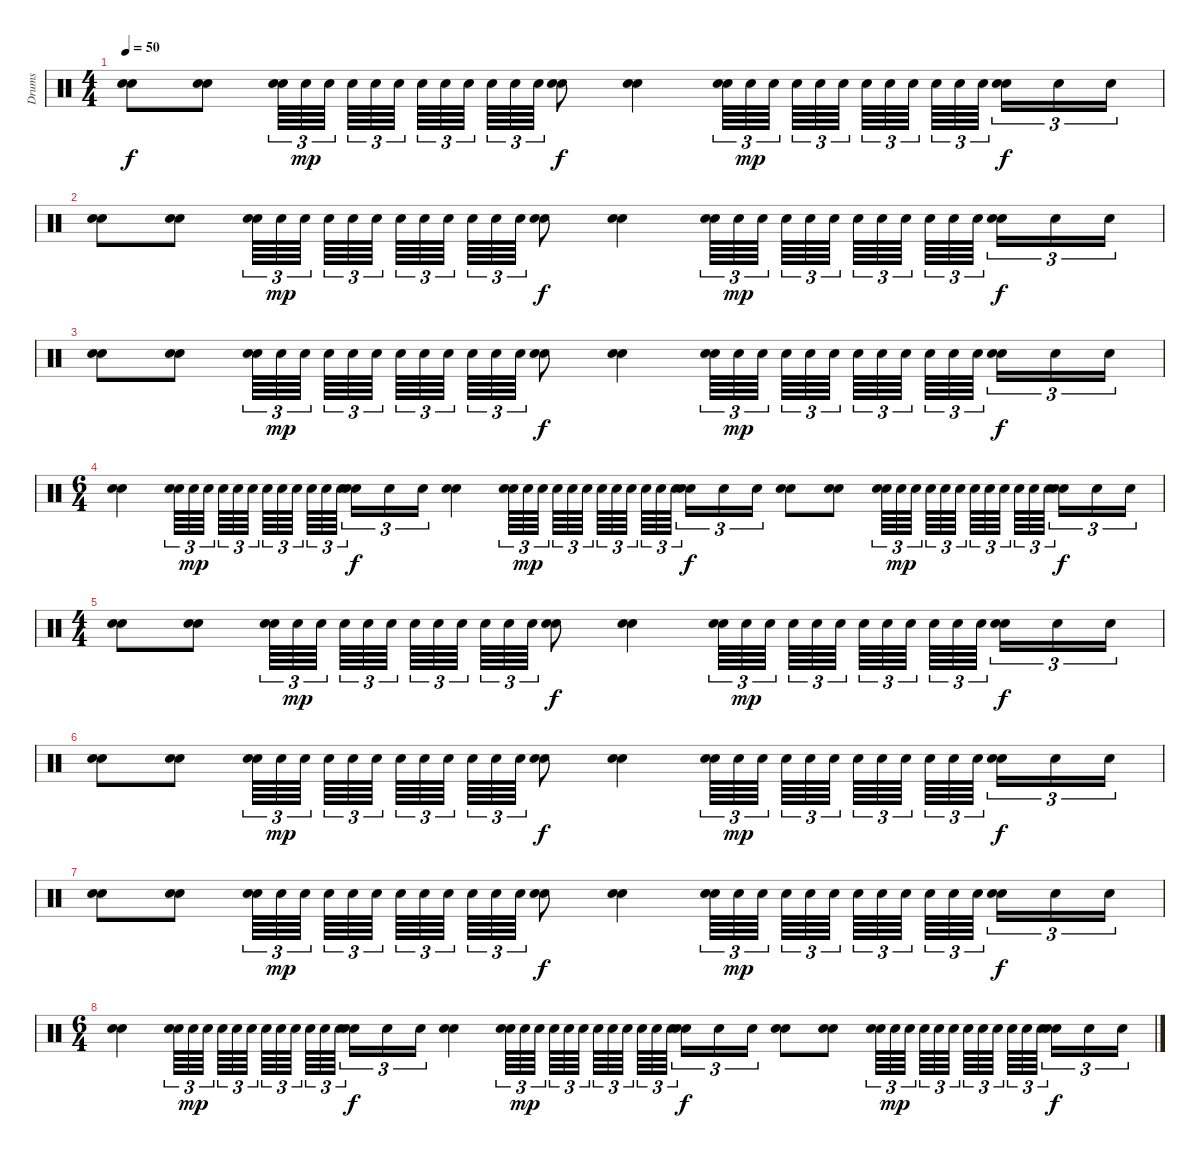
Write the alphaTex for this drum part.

\track ("Drums" "Drums") {instrument percussion}
\staff {score}
\articulation defaults
\ts (4 4)
\tempo 50
\clef neutral
\ks c
("Electric Snare (hit)" "Electric Snare (hit)").8{bu 60 dy f} ("Electric Snare (hit)" "Electric Snare (hit)").8{bu 60} ("Electric Snare (hit)" "Electric Snare (hit)").64{tu (3 2) bu 60} "Electric Snare (hit)".64{tu (3 2) dy mp} "Electric Snare (hit)".64{tu (3 2)} "Electric Snare (hit)".64{tu (3 2)} "Electric Snare (hit)".64{tu (3 2)} "Electric Snare (hit)".64{tu (3 2)} "Electric Snare (hit)".64{tu (3 2)} "Electric Snare (hit)".64{tu (3 2)} "Electric Snare (hit)".64{tu (3 2)} "Electric Snare (hit)".64{tu (3 2)} "Electric Snare (hit)".64{tu (3 2)} "Electric Snare (hit)".64{tu (3 2)} ("Electric Snare (hit)" "Electric Snare (hit)").8{bu 60 dy f} ("Electric Snare (hit)" "Electric Snare (hit)").4{bu 60} ("Electric Snare (hit)" "Electric Snare (hit)").64{tu (3 2) bu 60} "Electric Snare (hit)".64{tu (3 2) dy mp} "Electric Snare (hit)".64{tu (3 2)} "Electric Snare (hit)".64{tu (3 2)} "Electric Snare (hit)".64{tu (3 2)} "Electric Snare (hit)".64{tu (3 2)} "Electric Snare (hit)".64{tu (3 2)} "Electric Snare (hit)".64{tu (3 2)} "Electric Snare (hit)".64{tu (3 2)} "Electric Snare (hit)".64{tu (3 2)} "Electric Snare (hit)".64{tu (3 2)} "Electric Snare (hit)".64{tu (3 2)} ("Electric Snare (hit)" "Electric Snare (hit)").16{tu (3 2) bu 60 dy f} "Electric Snare (hit)".16{tu (3 2)} "Electric Snare (hit)".16{tu (3 2)} |
("Electric Snare (hit)" "Electric Snare (hit)").8{bu 60} ("Electric Snare (hit)" "Electric Snare (hit)").8{bu 60} ("Electric Snare (hit)" "Electric Snare (hit)").64{tu (3 2) bu 60} "Electric Snare (hit)".64{tu (3 2) dy mp} "Electric Snare (hit)".64{tu (3 2)} "Electric Snare (hit)".64{tu (3 2)} "Electric Snare (hit)".64{tu (3 2)} "Electric Snare (hit)".64{tu (3 2)} "Electric Snare (hit)".64{tu (3 2)} "Electric Snare (hit)".64{tu (3 2)} "Electric Snare (hit)".64{tu (3 2)} "Electric Snare (hit)".64{tu (3 2)} "Electric Snare (hit)".64{tu (3 2)} "Electric Snare (hit)".64{tu (3 2)} ("Electric Snare (hit)" "Electric Snare (hit)").8{bu 60 dy f} ("Electric Snare (hit)" "Electric Snare (hit)").4{bu 60} ("Electric Snare (hit)" "Electric Snare (hit)").64{tu (3 2) bu 60} "Electric Snare (hit)".64{tu (3 2) dy mp} "Electric Snare (hit)".64{tu (3 2)} "Electric Snare (hit)".64{tu (3 2)} "Electric Snare (hit)".64{tu (3 2)} "Electric Snare (hit)".64{tu (3 2)} "Electric Snare (hit)".64{tu (3 2)} "Electric Snare (hit)".64{tu (3 2)} "Electric Snare (hit)".64{tu (3 2)} "Electric Snare (hit)".64{tu (3 2)} "Electric Snare (hit)".64{tu (3 2)} "Electric Snare (hit)".64{tu (3 2)} ("Electric Snare (hit)" "Electric Snare (hit)").16{tu (3 2) bu 60 dy f} "Electric Snare (hit)".16{tu (3 2)} "Electric Snare (hit)".16{tu (3 2)} |
("Electric Snare (hit)" "Electric Snare (hit)").8{bu 60} ("Electric Snare (hit)" "Electric Snare (hit)").8{bu 60} ("Electric Snare (hit)" "Electric Snare (hit)").64{tu (3 2) bu 60} "Electric Snare (hit)".64{tu (3 2) dy mp} "Electric Snare (hit)".64{tu (3 2)} "Electric Snare (hit)".64{tu (3 2)} "Electric Snare (hit)".64{tu (3 2)} "Electric Snare (hit)".64{tu (3 2)} "Electric Snare (hit)".64{tu (3 2)} "Electric Snare (hit)".64{tu (3 2)} "Electric Snare (hit)".64{tu (3 2)} "Electric Snare (hit)".64{tu (3 2)} "Electric Snare (hit)".64{tu (3 2)} "Electric Snare (hit)".64{tu (3 2)} ("Electric Snare (hit)" "Electric Snare (hit)").8{bu 60 dy f} ("Electric Snare (hit)" "Electric Snare (hit)").4{bu 60} ("Electric Snare (hit)" "Electric Snare (hit)").64{tu (3 2) bu 60} "Electric Snare (hit)".64{tu (3 2) dy mp} "Electric Snare (hit)".64{tu (3 2)} "Electric Snare (hit)".64{tu (3 2)} "Electric Snare (hit)".64{tu (3 2)} "Electric Snare (hit)".64{tu (3 2)} "Electric Snare (hit)".64{tu (3 2)} "Electric Snare (hit)".64{tu (3 2)} "Electric Snare (hit)".64{tu (3 2)} "Electric Snare (hit)".64{tu (3 2)} "Electric Snare (hit)".64{tu (3 2)} "Electric Snare (hit)".64{tu (3 2)} ("Electric Snare (hit)" "Electric Snare (hit)").16{tu (3 2) bu 60 dy f} "Electric Snare (hit)".16{tu (3 2)} "Electric Snare (hit)".16{tu (3 2)} |
\ts (6 4)
("Electric Snare (hit)" "Electric Snare (hit)").4{bu 60} ("Electric Snare (hit)" "Electric Snare (hit)").64{tu (3 2) bu 60} "Electric Snare (hit)".64{tu (3 2) dy mp} "Electric Snare (hit)".64{tu (3 2)} "Electric Snare (hit)".64{tu (3 2)} "Electric Snare (hit)".64{tu (3 2)} "Electric Snare (hit)".64{tu (3 2)} "Electric Snare (hit)".64{tu (3 2)} "Electric Snare (hit)".64{tu (3 2)} "Electric Snare (hit)".64{tu (3 2)} "Electric Snare (hit)".64{tu (3 2)} "Electric Snare (hit)".64{tu (3 2)} "Electric Snare (hit)".64{tu (3 2)} ("Electric Snare (hit)" "Electric Snare (hit)").16{tu (3 2) bu 60 dy f} "Electric Snare (hit)".16{tu (3 2)} "Electric Snare (hit)".16{tu (3 2)} ("Electric Snare (hit)" "Electric Snare (hit)").4{bu 60} ("Electric Snare (hit)" "Electric Snare (hit)").64{tu (3 2) bu 60} "Electric Snare (hit)".64{tu (3 2) dy mp} "Electric Snare (hit)".64{tu (3 2)} "Electric Snare (hit)".64{tu (3 2)} "Electric Snare (hit)".64{tu (3 2)} "Electric Snare (hit)".64{tu (3 2)} "Electric Snare (hit)".64{tu (3 2)} "Electric Snare (hit)".64{tu (3 2)} "Electric Snare (hit)".64{tu (3 2)} "Electric Snare (hit)".64{tu (3 2)} "Electric Snare (hit)".64{tu (3 2)} "Electric Snare (hit)".64{tu (3 2)} ("Electric Snare (hit)" "Electric Snare (hit)").16{tu (3 2) bu 60 dy f} "Electric Snare (hit)".16{tu (3 2)} "Electric Snare (hit)".16{tu (3 2)} ("Electric Snare (hit)" "Electric Snare (hit)").8{bu 60} ("Electric Snare (hit)" "Electric Snare (hit)").8{bu 60} ("Electric Snare (hit)" "Electric Snare (hit)").64{tu (3 2) bu 60} "Electric Snare (hit)".64{tu (3 2) dy mp} "Electric Snare (hit)".64{tu (3 2)} "Electric Snare (hit)".64{tu (3 2)} "Electric Snare (hit)".64{tu (3 2)} "Electric Snare (hit)".64{tu (3 2)} "Electric Snare (hit)".64{tu (3 2)} "Electric Snare (hit)".64{tu (3 2)} "Electric Snare (hit)".64{tu (3 2)} "Electric Snare (hit)".64{tu (3 2)} "Electric Snare (hit)".64{tu (3 2)} "Electric Snare (hit)".64{tu (3 2)} ("Electric Snare (hit)" "Electric Snare (hit)").16{tu (3 2) bu 60 dy f} "Electric Snare (hit)".16{tu (3 2)} "Electric Snare (hit)".16{tu (3 2)} |
\ts (4 4)
("Electric Snare (hit)" "Electric Snare (hit)").8{bu 60} ("Electric Snare (hit)" "Electric Snare (hit)").8{bu 60} ("Electric Snare (hit)" "Electric Snare (hit)").64{tu (3 2) bu 60} "Electric Snare (hit)".64{tu (3 2) dy mp} "Electric Snare (hit)".64{tu (3 2)} "Electric Snare (hit)".64{tu (3 2)} "Electric Snare (hit)".64{tu (3 2)} "Electric Snare (hit)".64{tu (3 2)} "Electric Snare (hit)".64{tu (3 2)} "Electric Snare (hit)".64{tu (3 2)} "Electric Snare (hit)".64{tu (3 2)} "Electric Snare (hit)".64{tu (3 2)} "Electric Snare (hit)".64{tu (3 2)} "Electric Snare (hit)".64{tu (3 2)} ("Electric Snare (hit)" "Electric Snare (hit)").8{bu 60 dy f} ("Electric Snare (hit)" "Electric Snare (hit)").4{bu 60} ("Electric Snare (hit)" "Electric Snare (hit)").64{tu (3 2) bu 60} "Electric Snare (hit)".64{tu (3 2) dy mp} "Electric Snare (hit)".64{tu (3 2)} "Electric Snare (hit)".64{tu (3 2)} "Electric Snare (hit)".64{tu (3 2)} "Electric Snare (hit)".64{tu (3 2)} "Electric Snare (hit)".64{tu (3 2)} "Electric Snare (hit)".64{tu (3 2)} "Electric Snare (hit)".64{tu (3 2)} "Electric Snare (hit)".64{tu (3 2)} "Electric Snare (hit)".64{tu (3 2)} "Electric Snare (hit)".64{tu (3 2)} ("Electric Snare (hit)" "Electric Snare (hit)").16{tu (3 2) bu 60 dy f} "Electric Snare (hit)".16{tu (3 2)} "Electric Snare (hit)".16{tu (3 2)} |
("Electric Snare (hit)" "Electric Snare (hit)").8{bu 60} ("Electric Snare (hit)" "Electric Snare (hit)").8{bu 60} ("Electric Snare (hit)" "Electric Snare (hit)").64{tu (3 2) bu 60} "Electric Snare (hit)".64{tu (3 2) dy mp} "Electric Snare (hit)".64{tu (3 2)} "Electric Snare (hit)".64{tu (3 2)} "Electric Snare (hit)".64{tu (3 2)} "Electric Snare (hit)".64{tu (3 2)} "Electric Snare (hit)".64{tu (3 2)} "Electric Snare (hit)".64{tu (3 2)} "Electric Snare (hit)".64{tu (3 2)} "Electric Snare (hit)".64{tu (3 2)} "Electric Snare (hit)".64{tu (3 2)} "Electric Snare (hit)".64{tu (3 2)} ("Electric Snare (hit)" "Electric Snare (hit)").8{bu 60 dy f} ("Electric Snare (hit)" "Electric Snare (hit)").4{bu 60} ("Electric Snare (hit)" "Electric Snare (hit)").64{tu (3 2) bu 60} "Electric Snare (hit)".64{tu (3 2) dy mp} "Electric Snare (hit)".64{tu (3 2)} "Electric Snare (hit)".64{tu (3 2)} "Electric Snare (hit)".64{tu (3 2)} "Electric Snare (hit)".64{tu (3 2)} "Electric Snare (hit)".64{tu (3 2)} "Electric Snare (hit)".64{tu (3 2)} "Electric Snare (hit)".64{tu (3 2)} "Electric Snare (hit)".64{tu (3 2)} "Electric Snare (hit)".64{tu (3 2)} "Electric Snare (hit)".64{tu (3 2)} ("Electric Snare (hit)" "Electric Snare (hit)").16{tu (3 2) bu 60 dy f} "Electric Snare (hit)".16{tu (3 2)} "Electric Snare (hit)".16{tu (3 2)} |
("Electric Snare (hit)" "Electric Snare (hit)").8{bu 60} ("Electric Snare (hit)" "Electric Snare (hit)").8{bu 60} ("Electric Snare (hit)" "Electric Snare (hit)").64{tu (3 2) bu 60} "Electric Snare (hit)".64{tu (3 2) dy mp} "Electric Snare (hit)".64{tu (3 2)} "Electric Snare (hit)".64{tu (3 2)} "Electric Snare (hit)".64{tu (3 2)} "Electric Snare (hit)".64{tu (3 2)} "Electric Snare (hit)".64{tu (3 2)} "Electric Snare (hit)".64{tu (3 2)} "Electric Snare (hit)".64{tu (3 2)} "Electric Snare (hit)".64{tu (3 2)} "Electric Snare (hit)".64{tu (3 2)} "Electric Snare (hit)".64{tu (3 2)} ("Electric Snare (hit)" "Electric Snare (hit)").8{bu 60 dy f} ("Electric Snare (hit)" "Electric Snare (hit)").4{bu 60} ("Electric Snare (hit)" "Electric Snare (hit)").64{tu (3 2) bu 60} "Electric Snare (hit)".64{tu (3 2) dy mp} "Electric Snare (hit)".64{tu (3 2)} "Electric Snare (hit)".64{tu (3 2)} "Electric Snare (hit)".64{tu (3 2)} "Electric Snare (hit)".64{tu (3 2)} "Electric Snare (hit)".64{tu (3 2)} "Electric Snare (hit)".64{tu (3 2)} "Electric Snare (hit)".64{tu (3 2)} "Electric Snare (hit)".64{tu (3 2)} "Electric Snare (hit)".64{tu (3 2)} "Electric Snare (hit)".64{tu (3 2)} ("Electric Snare (hit)" "Electric Snare (hit)").16{tu (3 2) bu 60 dy f} "Electric Snare (hit)".16{tu (3 2)} "Electric Snare (hit)".16{tu (3 2)} |
\ts (6 4)
("Electric Snare (hit)" "Electric Snare (hit)").4{bu 60} ("Electric Snare (hit)" "Electric Snare (hit)").64{tu (3 2) bu 60} "Electric Snare (hit)".64{tu (3 2) dy mp} "Electric Snare (hit)".64{tu (3 2)} "Electric Snare (hit)".64{tu (3 2)} "Electric Snare (hit)".64{tu (3 2)} "Electric Snare (hit)".64{tu (3 2)} "Electric Snare (hit)".64{tu (3 2)} "Electric Snare (hit)".64{tu (3 2)} "Electric Snare (hit)".64{tu (3 2)} "Electric Snare (hit)".64{tu (3 2)} "Electric Snare (hit)".64{tu (3 2)} "Electric Snare (hit)".64{tu (3 2)} ("Electric Snare (hit)" "Electric Snare (hit)").16{tu (3 2) bu 60 dy f} "Electric Snare (hit)".16{tu (3 2)} "Electric Snare (hit)".16{tu (3 2)} ("Electric Snare (hit)" "Electric Snare (hit)").4{bu 60} ("Electric Snare (hit)" "Electric Snare (hit)").64{tu (3 2) bu 60} "Electric Snare (hit)".64{tu (3 2) dy mp} "Electric Snare (hit)".64{tu (3 2)} "Electric Snare (hit)".64{tu (3 2)} "Electric Snare (hit)".64{tu (3 2)} "Electric Snare (hit)".64{tu (3 2)} "Electric Snare (hit)".64{tu (3 2)} "Electric Snare (hit)".64{tu (3 2)} "Electric Snare (hit)".64{tu (3 2)} "Electric Snare (hit)".64{tu (3 2)} "Electric Snare (hit)".64{tu (3 2)} "Electric Snare (hit)".64{tu (3 2)} ("Electric Snare (hit)" "Electric Snare (hit)").16{tu (3 2) bu 60 dy f} "Electric Snare (hit)".16{tu (3 2)} "Electric Snare (hit)".16{tu (3 2)} ("Electric Snare (hit)" "Electric Snare (hit)").8{bu 60} ("Electric Snare (hit)" "Electric Snare (hit)").8{bu 60} ("Electric Snare (hit)" "Electric Snare (hit)").64{tu (3 2) bu 60} "Electric Snare (hit)".64{tu (3 2) dy mp} "Electric Snare (hit)".64{tu (3 2)} "Electric Snare (hit)".64{tu (3 2)} "Electric Snare (hit)".64{tu (3 2)} "Electric Snare (hit)".64{tu (3 2)} "Electric Snare (hit)".64{tu (3 2)} "Electric Snare (hit)".64{tu (3 2)} "Electric Snare (hit)".64{tu (3 2)} "Electric Snare (hit)".64{tu (3 2)} "Electric Snare (hit)".64{tu (3 2)} "Electric Snare (hit)".64{tu (3 2)} ("Electric Snare (hit)" "Electric Snare (hit)").16{tu (3 2) bu 60 dy f} "Electric Snare (hit)".16{tu (3 2)} "Electric Snare (hit)".16{tu (3 2)}
